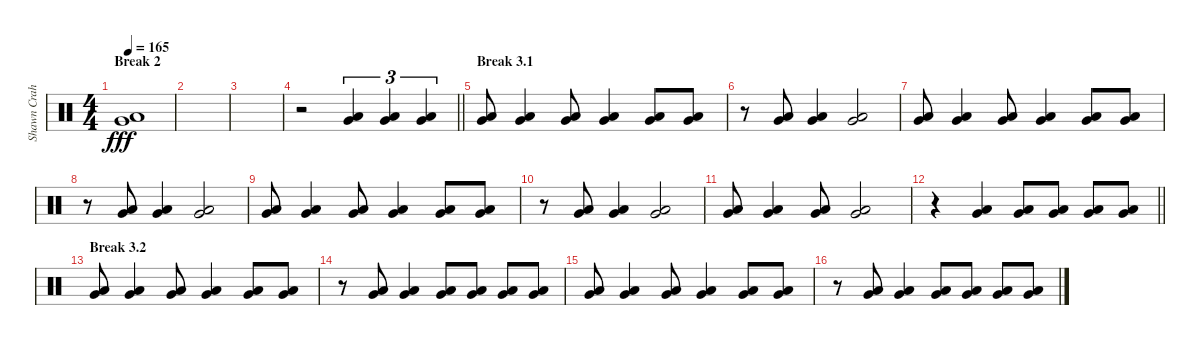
\track ("Shawn Crahan" "Shawn Crah") {instrument percussion}
\staff {score}
\articulation defaults
\ts (4 4)
\section ("" "Break 2")
\tempo 165
\clef neutral
\ks c
("Very Low Tom (hit)" "Low Floor Tom (hit)").1{dy fff} |
|
|
\barLineRight lightlight
r.2 ("Very Low Tom (hit)" "Low Floor Tom (hit)").4{tu (3 2)} ("Very Low Tom (hit)" "Low Floor Tom (hit)").4{tu (3 2)} ("Very Low Tom (hit)" "Low Floor Tom (hit)").4{tu (3 2)} |
\section ("" "Break 3.1")
("Very Low Tom (hit)" "Low Floor Tom (hit)").8 ("Very Low Tom (hit)" "Low Floor Tom (hit)").4 ("Very Low Tom (hit)" "Low Floor Tom (hit)").8 ("Very Low Tom (hit)" "Low Floor Tom (hit)").4 ("Very Low Tom (hit)" "Low Floor Tom (hit)").8 ("Very Low Tom (hit)" "Low Floor Tom (hit)").8 |
r.8 ("Very Low Tom (hit)" "Low Floor Tom (hit)").8 ("Very Low Tom (hit)" "Low Floor Tom (hit)").4 ("Very Low Tom (hit)" "Low Floor Tom (hit)").2 |
("Very Low Tom (hit)" "Low Floor Tom (hit)").8 ("Very Low Tom (hit)" "Low Floor Tom (hit)").4 ("Very Low Tom (hit)" "Low Floor Tom (hit)").8 ("Very Low Tom (hit)" "Low Floor Tom (hit)").4 ("Very Low Tom (hit)" "Low Floor Tom (hit)").8 ("Very Low Tom (hit)" "Low Floor Tom (hit)").8 |
r.8 ("Very Low Tom (hit)" "Low Floor Tom (hit)").8 ("Very Low Tom (hit)" "Low Floor Tom (hit)").4 ("Very Low Tom (hit)" "Low Floor Tom (hit)").2 |
("Very Low Tom (hit)" "Low Floor Tom (hit)").8 ("Very Low Tom (hit)" "Low Floor Tom (hit)").4 ("Very Low Tom (hit)" "Low Floor Tom (hit)").8 ("Very Low Tom (hit)" "Low Floor Tom (hit)").4 ("Very Low Tom (hit)" "Low Floor Tom (hit)").8 ("Very Low Tom (hit)" "Low Floor Tom (hit)").8 |
r.8 ("Very Low Tom (hit)" "Low Floor Tom (hit)").8 ("Very Low Tom (hit)" "Low Floor Tom (hit)").4 ("Very Low Tom (hit)" "Low Floor Tom (hit)").2 |
("Very Low Tom (hit)" "Low Floor Tom (hit)").8 ("Very Low Tom (hit)" "Low Floor Tom (hit)").4 ("Very Low Tom (hit)" "Low Floor Tom (hit)").8 ("Very Low Tom (hit)" "Low Floor Tom (hit)").2 |
\barLineRight lightlight
r.4 ("Very Low Tom (hit)" "Low Floor Tom (hit)").4 ("Very Low Tom (hit)" "Low Floor Tom (hit)").8 ("Very Low Tom (hit)" "Low Floor Tom (hit)").8 ("Very Low Tom (hit)" "Low Floor Tom (hit)").8 ("Very Low Tom (hit)" "Low Floor Tom (hit)").8 |
\section ("" "Break 3.2")
("Very Low Tom (hit)" "Low Floor Tom (hit)").8 ("Very Low Tom (hit)" "Low Floor Tom (hit)").4 ("Very Low Tom (hit)" "Low Floor Tom (hit)").8 ("Very Low Tom (hit)" "Low Floor Tom (hit)").4 ("Very Low Tom (hit)" "Low Floor Tom (hit)").8 ("Very Low Tom (hit)" "Low Floor Tom (hit)").8 |
r.8 ("Very Low Tom (hit)" "Low Floor Tom (hit)").8 ("Very Low Tom (hit)" "Low Floor Tom (hit)").4 ("Very Low Tom (hit)" "Low Floor Tom (hit)").8 ("Very Low Tom (hit)" "Low Floor Tom (hit)").8 ("Very Low Tom (hit)" "Low Floor Tom (hit)").8 ("Very Low Tom (hit)" "Low Floor Tom (hit)").8 |
("Very Low Tom (hit)" "Low Floor Tom (hit)").8 ("Very Low Tom (hit)" "Low Floor Tom (hit)").4 ("Very Low Tom (hit)" "Low Floor Tom (hit)").8 ("Very Low Tom (hit)" "Low Floor Tom (hit)").4 ("Very Low Tom (hit)" "Low Floor Tom (hit)").8 ("Very Low Tom (hit)" "Low Floor Tom (hit)").8 |
r.8 ("Very Low Tom (hit)" "Low Floor Tom (hit)").8 ("Very Low Tom (hit)" "Low Floor Tom (hit)").4 ("Very Low Tom (hit)" "Low Floor Tom (hit)").8 ("Very Low Tom (hit)" "Low Floor Tom (hit)").8 ("Very Low Tom (hit)" "Low Floor Tom (hit)").8 ("Very Low Tom (hit)" "Low Floor Tom (hit)").8
